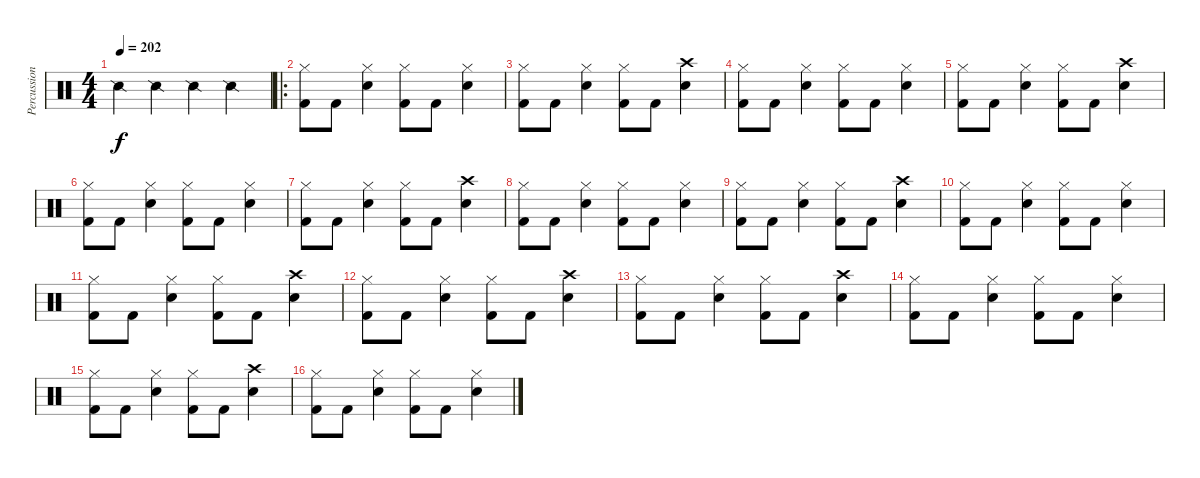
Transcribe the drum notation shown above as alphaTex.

\track ("Percussion" "Percussion") {instrument percussion}
\staff {score}
\articulation defaults
\ts (4 4)
\tempo 202
\clef neutral
\ks c "Snare (side stick) 2".4{dy f} "Snare (side stick) 2".4 "Snare (side stick) 2".4 "Snare (side stick) 2".4
|
\ro
("Hi-Hat (closed)" "Kick (hit) 2").8 "Kick (hit) 2".8 ("Hi-Hat (closed)" "Electric Snare (hit)").4 ("Hi-Hat (closed)" "Kick (hit) 2").8 "Kick (hit) 2".8 ("Hi-Hat (closed)" "Electric Snare (hit)").4 |
("Hi-Hat (closed)" "Kick (hit) 2").8 "Kick (hit) 2".8 ("Hi-Hat (closed)" "Electric Snare (hit)").4 ("Hi-Hat (closed)" "Kick (hit) 2").8 "Kick (hit) 2".8 ("Crash high (hit)" "Electric Snare (hit)").4 |
("Hi-Hat (closed)" "Kick (hit) 2").8 "Kick (hit) 2".8 ("Hi-Hat (closed)" "Electric Snare (hit)").4 ("Hi-Hat (closed)" "Kick (hit) 2").8 "Kick (hit) 2".8 ("Hi-Hat (closed)" "Electric Snare (hit)").4 |
("Hi-Hat (closed)" "Kick (hit) 2").8 "Kick (hit) 2".8 ("Hi-Hat (closed)" "Electric Snare (hit)").4 ("Hi-Hat (closed)" "Kick (hit) 2").8 "Kick (hit) 2".8 ("Crash high (hit)" "Electric Snare (hit)").4 |
("Hi-Hat (closed)" "Kick (hit) 2").8 "Kick (hit) 2".8 ("Hi-Hat (closed)" "Electric Snare (hit)").4 ("Hi-Hat (closed)" "Kick (hit) 2").8 "Kick (hit) 2".8 ("Hi-Hat (closed)" "Electric Snare (hit)").4 |
("Hi-Hat (closed)" "Kick (hit) 2").8 "Kick (hit) 2".8 ("Hi-Hat (closed)" "Electric Snare (hit)").4 ("Hi-Hat (closed)" "Kick (hit) 2").8 "Kick (hit) 2".8 ("Crash high (hit)" "Electric Snare (hit)").4 |
("Hi-Hat (closed)" "Kick (hit) 2").8 "Kick (hit) 2".8 ("Hi-Hat (closed)" "Electric Snare (hit)").4 ("Hi-Hat (closed)" "Kick (hit) 2").8 "Kick (hit) 2".8 ("Hi-Hat (closed)" "Electric Snare (hit)").4 |
("Hi-Hat (closed)" "Kick (hit) 2").8 "Kick (hit) 2".8 ("Hi-Hat (closed)" "Electric Snare (hit)").4 ("Hi-Hat (closed)" "Kick (hit) 2").8 "Kick (hit) 2".8 ("Crash high (hit)" "Electric Snare (hit)").4 |
("Hi-Hat (closed)" "Kick (hit) 2").8 "Kick (hit) 2".8 ("Hi-Hat (closed)" "Electric Snare (hit)").4 ("Hi-Hat (closed)" "Kick (hit) 2").8 "Kick (hit) 2".8 ("Hi-Hat (closed)" "Electric Snare (hit)").4 |
("Hi-Hat (closed)" "Kick (hit) 2").8 "Kick (hit) 2".8 ("Hi-Hat (closed)" "Electric Snare (hit)").4 ("Hi-Hat (closed)" "Kick (hit) 2").8 "Kick (hit) 2".8 ("Crash high (hit)" "Electric Snare (hit)").4 |
("Hi-Hat (closed)" "Kick (hit) 2").8 "Kick (hit) 2".8 ("Hi-Hat (closed)" "Electric Snare (hit)").4 ("Hi-Hat (closed)" "Kick (hit) 2").8 "Kick (hit) 2".8 ("Crash high (hit)" "Electric Snare (hit)").4 |
("Hi-Hat (closed)" "Kick (hit) 2").8 "Kick (hit) 2".8 ("Hi-Hat (closed)" "Electric Snare (hit)").4 ("Hi-Hat (closed)" "Kick (hit) 2").8 "Kick (hit) 2".8 ("Crash high (hit)" "Electric Snare (hit)").4 |
("Hi-Hat (closed)" "Kick (hit) 2").8 "Kick (hit) 2".8 ("Hi-Hat (closed)" "Electric Snare (hit)").4 ("Hi-Hat (closed)" "Kick (hit) 2").8 "Kick (hit) 2".8 ("Hi-Hat (closed)" "Electric Snare (hit)").4 |
("Hi-Hat (closed)" "Kick (hit) 2").8 "Kick (hit) 2".8 ("Hi-Hat (closed)" "Electric Snare (hit)").4 ("Hi-Hat (closed)" "Kick (hit) 2").8 "Kick (hit) 2".8 ("Crash high (hit)" "Electric Snare (hit)").4 |
("Hi-Hat (closed)" "Kick (hit) 2").8 "Kick (hit) 2".8 ("Hi-Hat (closed)" "Electric Snare (hit)").4 ("Hi-Hat (closed)" "Kick (hit) 2").8 "Kick (hit) 2".8 ("Hi-Hat (closed)" "Electric Snare (hit)").4
